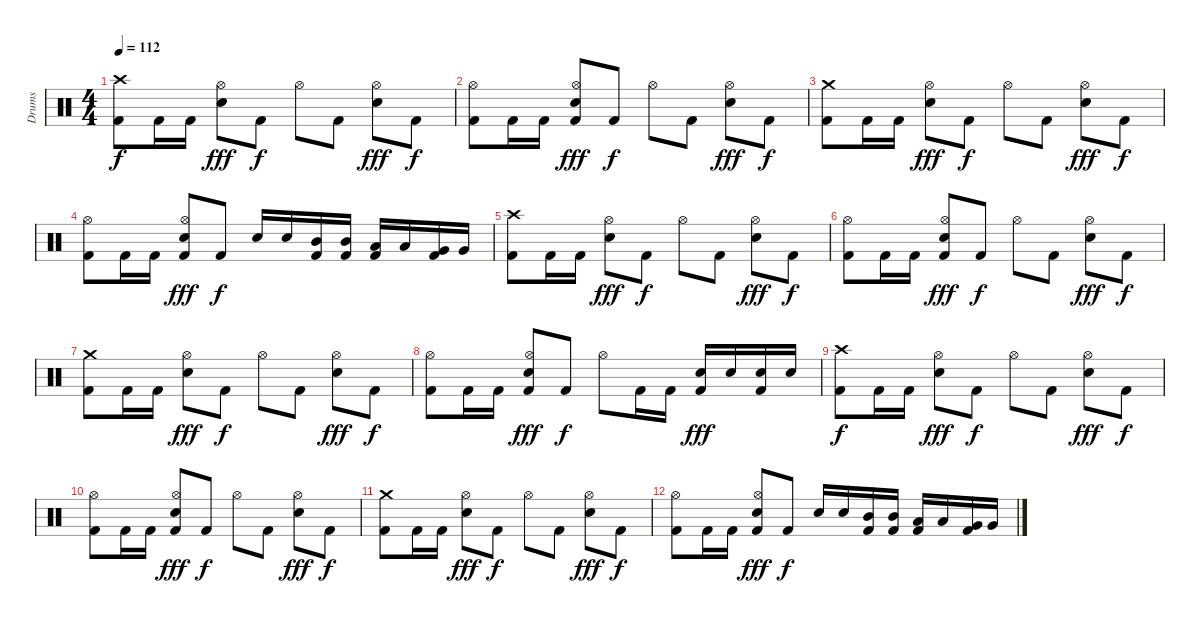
\track ("Drums" "Drums") {instrument percussion}
\staff {score}
\articulation defaults
\ts (4 4)
\tempo 112
\clef neutral
\ks c
("Crash high (hit)" "Kick (hit) 2").8{dy f} "Kick (hit) 2".16 "Kick (hit) 2".16 ("Hi-Hat (open)" "Snare (hit) 2").8{dy fff} "Kick (hit) 2".8{dy f} "Hi-Hat (open)".8 "Kick (hit) 2".8 ("Hi-Hat (open)" "Snare (hit) 2").8{dy fff} "Kick (hit) 2".8{dy f} |
("Hi-Hat (open)" "Kick (hit) 2").8 "Kick (hit) 2".16 "Kick (hit) 2".16 ("Hi-Hat (open)" "Snare (hit) 2" "Kick (hit) 2").8{dy fff} "Kick (hit) 2".8{dy f} "Hi-Hat (open)".8 "Kick (hit) 2".8 ("Hi-Hat (open)" "Snare (hit) 2").8{dy fff} "Kick (hit) 2".8{dy f} |
("Crash medium (hit)" "Kick (hit) 2").8 "Kick (hit) 2".16 "Kick (hit) 2".16 ("Hi-Hat (open)" "Snare (hit) 2").8{dy fff} "Kick (hit) 2".8{dy f} "Hi-Hat (open)".8 "Kick (hit) 2".8 ("Hi-Hat (open)" "Snare (hit) 2").8{dy fff} "Kick (hit) 2".8{dy f} |
("Hi-Hat (open)" "Kick (hit) 2").8 "Kick (hit) 2".16 "Kick (hit) 2".16 ("Hi-Hat (open)" "Snare (hit) 2" "Kick (hit) 2").8{dy fff} "Kick (hit) 2".8{dy f} "Snare (hit) 2".16 "Snare (hit) 2".16 ("Mid Tom (hit)" "Kick (hit) 2").16 ("Mid Tom (hit)" "Kick (hit) 2").16 ("Low Tom (hit)" "Kick (hit) 2").16 "Low Tom (hit)".16 ("Very Low Tom (hit)" "Kick (hit) 2").16 "Very Low Tom (hit)".16 |
("Crash high (hit)" "Kick (hit) 2").8{volume 7} "Kick (hit) 2".16 "Kick (hit) 2".16 ("Hi-Hat (open)" "Snare (hit) 2").8{dy fff} "Kick (hit) 2".8{dy f} "Hi-Hat (open)".8 "Kick (hit) 2".8 ("Hi-Hat (open)" "Snare (hit) 2").8{dy fff} "Kick (hit) 2".8{dy f} |
("Hi-Hat (open)" "Kick (hit) 2").8 "Kick (hit) 2".16 "Kick (hit) 2".16 ("Hi-Hat (open)" "Snare (hit) 2" "Kick (hit) 2").8{dy fff} "Kick (hit) 2".8{dy f} "Hi-Hat (open)".8 "Kick (hit) 2".8 ("Hi-Hat (open)" "Snare (hit) 2").8{dy fff} "Kick (hit) 2".8{dy f} |
("Crash medium (hit)" "Kick (hit) 2").8 "Kick (hit) 2".16 "Kick (hit) 2".16 ("Hi-Hat (open)" "Snare (hit) 2").8{dy fff} "Kick (hit) 2".8{dy f} "Hi-Hat (open)".8 "Kick (hit) 2".8 ("Hi-Hat (open)" "Snare (hit) 2").8{dy fff} "Kick (hit) 2".8{dy f} |
("Hi-Hat (open)" "Kick (hit) 2").8 "Kick (hit) 2".16 "Kick (hit) 2".16 ("Hi-Hat (open)" "Snare (hit) 2" "Kick (hit) 2").8{dy fff} "Kick (hit) 2".8{dy f} "Hi-Hat (open)".8 "Kick (hit) 2".16 "Kick (hit) 2".16 ("Snare (hit) 2" "Kick (hit) 2").16{dy fff} "Snare (hit) 2".16 ("Snare (hit) 2" "Kick (hit) 2").16 "Snare (hit) 2".16 |
("Crash high (hit)" "Kick (hit) 2").8{dy f volume 0} "Kick (hit) 2".16 "Kick (hit) 2".16 ("Hi-Hat (open)" "Snare (hit) 2").8{dy fff} "Kick (hit) 2".8{dy f} "Hi-Hat (open)".8 "Kick (hit) 2".8 ("Hi-Hat (open)" "Snare (hit) 2").8{dy fff} "Kick (hit) 2".8{dy f} |
("Hi-Hat (open)" "Kick (hit) 2").8 "Kick (hit) 2".16 "Kick (hit) 2".16 ("Hi-Hat (open)" "Snare (hit) 2" "Kick (hit) 2").8{dy fff} "Kick (hit) 2".8{dy f} "Hi-Hat (open)".8 "Kick (hit) 2".8 ("Hi-Hat (open)" "Snare (hit) 2").8{dy fff} "Kick (hit) 2".8{dy f} |
("Crash medium (hit)" "Kick (hit) 2").8 "Kick (hit) 2".16 "Kick (hit) 2".16 ("Hi-Hat (open)" "Snare (hit) 2").8{dy fff} "Kick (hit) 2".8{dy f} "Hi-Hat (open)".8 "Kick (hit) 2".8 ("Hi-Hat (open)" "Snare (hit) 2").8{dy fff} "Kick (hit) 2".8{dy f} |
("Hi-Hat (open)" "Kick (hit) 2").8 "Kick (hit) 2".16 "Kick (hit) 2".16 ("Hi-Hat (open)" "Snare (hit) 2" "Kick (hit) 2").8{dy fff} "Kick (hit) 2".8{dy f} "Snare (hit) 2".16 "Snare (hit) 2".16 ("Mid Tom (hit)" "Kick (hit) 2").16 ("Mid Tom (hit)" "Kick (hit) 2").16 ("Low Tom (hit)" "Kick (hit) 2").16 "Low Tom (hit)".16 ("Very Low Tom (hit)" "Kick (hit) 2").16 "Very Low Tom (hit)".16
